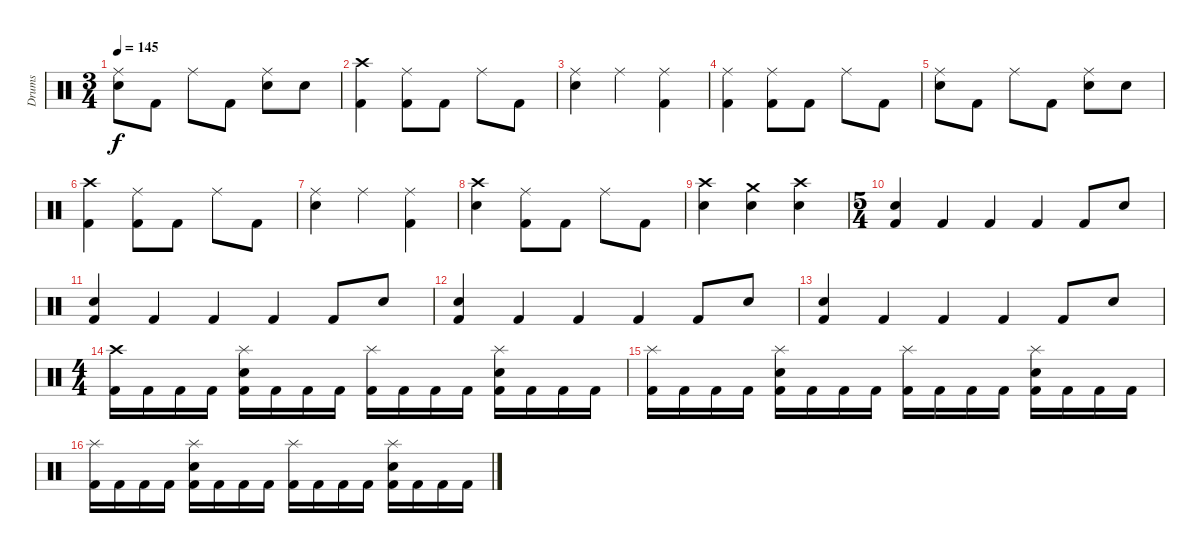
\track ("Drums" "Drums") {instrument percussion}
\staff {score}
\articulation defaults
\ts (3 4)
\tempo 145
\clef neutral
\ks c
("Ride (middle)" "Snare (hit) 2").8{dy f} "Kick (hit) 2".8 "Ride (middle)".8 "Kick (hit) 2".8 ("Ride (middle)" "Snare (hit) 2").8 "Snare (hit) 2".8 |
("Crash high (hit)" "Kick (hit) 2").4 ("Ride (middle)" "Kick (hit) 2").8 "Kick (hit) 2".8 "Ride (middle)".8 "Kick (hit) 2".8 |
("Ride (middle)" "Snare (hit) 2").4 "Ride (middle)".4 ("Ride (middle)" "Kick (hit) 2").4 |
("Ride (middle)" "Kick (hit) 2").4 ("Ride (middle)" "Kick (hit) 2").8 "Kick (hit) 2".8 "Ride (middle)".8 "Kick (hit) 2".8 |
("Ride (middle)" "Snare (hit) 2").8 "Kick (hit) 2".8 "Ride (middle)".8 "Kick (hit) 2".8 ("Ride (middle)" "Snare (hit) 2").8 "Snare (hit) 2".8 |
("Crash high (hit)" "Kick (hit) 2").4 ("Ride (middle)" "Kick (hit) 2").8 "Kick (hit) 2".8 "Ride (middle)".8 "Kick (hit) 2".8 |
("Ride (middle)" "Snare (hit) 2").4 "Ride (middle)".4 ("Ride (middle)" "Kick (hit) 2").4 |
("Crash high (hit)" "Snare (hit) 2").4 ("Ride (middle)" "Kick (hit) 2").8 "Kick (hit) 2".8 "Ride (middle)".8 "Kick (hit) 2".8 |
("Crash high (hit)" "Snare (hit) 2").4 ("Crash medium (hit)" "Snare (hit) 2").4 ("Crash high (hit)" "Snare (hit) 2").4 |
\ts (5 4)
("Snare (hit) 2" "Kick (hit) 2").4 "Kick (hit) 2".4 "Kick (hit) 2".4 "Kick (hit) 2".4 "Kick (hit) 2".8 "Snare (hit) 2".8 |
("Snare (hit) 2" "Kick (hit) 2").4 "Kick (hit) 2".4 "Kick (hit) 2".4 "Kick (hit) 2".4 "Kick (hit) 2".8 "Snare (hit) 2".8 |
("Snare (hit) 2" "Kick (hit) 2").4 "Kick (hit) 2".4 "Kick (hit) 2".4 "Kick (hit) 2".4 "Kick (hit) 2".8 "Snare (hit) 2".8 |
("Snare (hit) 2" "Kick (hit) 2").4 "Kick (hit) 2".4 "Kick (hit) 2".4 "Kick (hit) 2".4 "Kick (hit) 2".8 "Snare (hit) 2".8 |
\ts (4 4)
("Crash high (hit)" "Kick (hit) 2").16 "Kick (hit) 2".16 "Kick (hit) 2".16 "Kick (hit) 2".16 ("Splash (hit)" "Snare (hit) 2" "Kick (hit) 2").16 "Kick (hit) 2".16 "Kick (hit) 2".16 "Kick (hit) 2".16 ("Splash (hit)" "Kick (hit) 2").16 "Kick (hit) 2".16 "Kick (hit) 2".16 "Kick (hit) 2".16 ("Splash (hit)" "Snare (hit) 2" "Kick (hit) 2").16 "Kick (hit) 2".16 "Kick (hit) 2".16 "Kick (hit) 2".16 |
("Splash (hit)" "Kick (hit) 2").16 "Kick (hit) 2".16 "Kick (hit) 2".16 "Kick (hit) 2".16 ("Splash (hit)" "Snare (hit) 2" "Kick (hit) 2").16 "Kick (hit) 2".16 "Kick (hit) 2".16 "Kick (hit) 2".16 ("Splash (hit)" "Kick (hit) 2").16 "Kick (hit) 2".16 "Kick (hit) 2".16 "Kick (hit) 2".16 ("Splash (hit)" "Snare (hit) 2" "Kick (hit) 2").16 "Kick (hit) 2".16 "Kick (hit) 2".16 "Kick (hit) 2".16 |
("Splash (hit)" "Kick (hit) 2").16 "Kick (hit) 2".16 "Kick (hit) 2".16 "Kick (hit) 2".16 ("Splash (hit)" "Snare (hit) 2" "Kick (hit) 2").16 "Kick (hit) 2".16 "Kick (hit) 2".16 "Kick (hit) 2".16 ("Splash (hit)" "Kick (hit) 2").16 "Kick (hit) 2".16 "Kick (hit) 2".16 "Kick (hit) 2".16 ("Splash (hit)" "Snare (hit) 2" "Kick (hit) 2").16 "Kick (hit) 2".16 "Kick (hit) 2".16 "Kick (hit) 2".16
